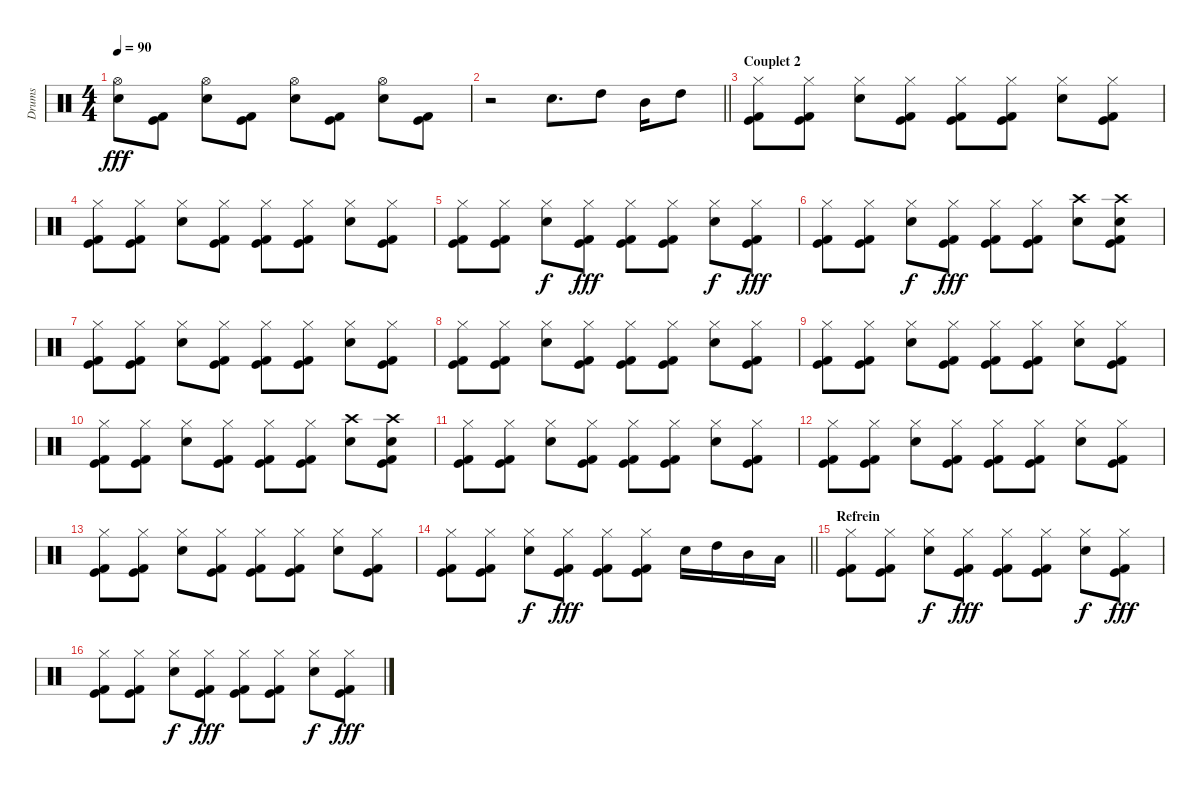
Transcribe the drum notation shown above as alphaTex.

\track ("Drums" "Drums") {instrument percussion}
\staff {score}
\articulation defaults
\ts (4 4)
\tempo 90
\clef neutral
\ks c
("Hi-Hat (open)" "Snare (hit) 2").8{dy fff} ("Kick (hit) 2" "Kick (hit)").8 ("Hi-Hat (open)" "Snare (hit) 2").8 ("Kick (hit) 2" "Kick (hit)").8 ("Hi-Hat (open)" "Snare (hit) 2").8 ("Kick (hit) 2" "Kick (hit)").8 ("Hi-Hat (open)" "Snare (hit) 2").8 ("Kick (hit) 2" "Kick (hit)").8 |
\barLineRight lightlight
r.2 "Electric Snare (hit)".8{d} "High Tom (hit)".8 "Mid Tom (hit)".16 "High Tom (hit)".8 |
\section ("" "Couplet 2")
("Hi-Hat (closed)" "Kick (hit) 2" "Kick (hit)").8 ("Hi-Hat (closed)" "Kick (hit) 2" "Kick (hit)").8 ("Hi-Hat (closed)" "Snare (hit) 2").8 ("Hi-Hat (closed)" "Kick (hit) 2" "Kick (hit)").8 ("Hi-Hat (closed)" "Kick (hit) 2" "Kick (hit)").8 ("Hi-Hat (closed)" "Kick (hit) 2" "Kick (hit)").8 ("Hi-Hat (closed)" "Snare (hit) 2").8 ("Hi-Hat (closed)" "Kick (hit) 2" "Kick (hit)").8 |
("Hi-Hat (closed)" "Kick (hit) 2" "Kick (hit)").8 ("Hi-Hat (closed)" "Kick (hit) 2" "Kick (hit)").8 ("Hi-Hat (closed)" "Snare (hit) 2").8 ("Hi-Hat (closed)" "Kick (hit) 2" "Kick (hit)").8 ("Hi-Hat (closed)" "Kick (hit) 2" "Kick (hit)").8 ("Hi-Hat (closed)" "Kick (hit) 2" "Kick (hit)").8 ("Hi-Hat (closed)" "Snare (hit) 2").8 ("Hi-Hat (closed)" "Kick (hit) 2" "Kick (hit)").8 |
("Hi-Hat (closed)" "Kick (hit) 2" "Kick (hit)").8 ("Hi-Hat (closed)" "Kick (hit) 2" "Kick (hit)").8 ("Hi-Hat (closed)" "Snare (hit) 2").8{dy f} ("Hi-Hat (closed)" "Kick (hit) 2" "Kick (hit)").8{dy fff} ("Hi-Hat (closed)" "Kick (hit) 2" "Kick (hit)").8 ("Hi-Hat (closed)" "Kick (hit) 2" "Kick (hit)").8 ("Hi-Hat (closed)" "Snare (hit) 2").8{dy f} ("Hi-Hat (closed)" "Kick (hit) 2" "Kick (hit)").8{dy fff} |
("Hi-Hat (closed)" "Kick (hit) 2" "Kick (hit)").8 ("Hi-Hat (closed)" "Kick (hit) 2" "Kick (hit)").8 ("Hi-Hat (closed)" "Snare (hit) 2").8{dy f} ("Hi-Hat (closed)" "Kick (hit) 2" "Kick (hit)").8{dy fff} ("Hi-Hat (closed)" "Kick (hit) 2" "Kick (hit)").8 ("Hi-Hat (closed)" "Kick (hit) 2" "Kick (hit)").8 ("Crash high (hit)" "Snare (hit) 2").8 ("Crash high (hit)" "Snare (hit) 2" "Kick (hit) 2" "Kick (hit)").8 |
("Hi-Hat (closed)" "Kick (hit) 2" "Kick (hit)").8 ("Hi-Hat (closed)" "Kick (hit) 2" "Kick (hit)").8 ("Hi-Hat (closed)" "Snare (hit) 2").8 ("Hi-Hat (closed)" "Kick (hit) 2" "Kick (hit)").8 ("Hi-Hat (closed)" "Kick (hit) 2" "Kick (hit)").8 ("Hi-Hat (closed)" "Kick (hit) 2" "Kick (hit)").8 ("Hi-Hat (closed)" "Snare (hit) 2").8 ("Hi-Hat (closed)" "Kick (hit) 2" "Kick (hit)").8 |
("Hi-Hat (closed)" "Kick (hit) 2" "Kick (hit)").8 ("Hi-Hat (closed)" "Kick (hit) 2" "Kick (hit)").8 ("Hi-Hat (closed)" "Snare (hit) 2").8 ("Hi-Hat (closed)" "Kick (hit) 2" "Kick (hit)").8 ("Hi-Hat (closed)" "Kick (hit) 2" "Kick (hit)").8 ("Hi-Hat (closed)" "Kick (hit) 2" "Kick (hit)").8 ("Hi-Hat (closed)" "Snare (hit) 2").8 ("Hi-Hat (closed)" "Kick (hit) 2" "Kick (hit)").8 |
("Hi-Hat (closed)" "Kick (hit) 2" "Kick (hit)").8 ("Hi-Hat (closed)" "Kick (hit) 2" "Kick (hit)").8 ("Hi-Hat (closed)" "Snare (hit) 2").8 ("Hi-Hat (closed)" "Kick (hit) 2" "Kick (hit)").8 ("Hi-Hat (closed)" "Kick (hit) 2" "Kick (hit)").8 ("Hi-Hat (closed)" "Kick (hit) 2" "Kick (hit)").8 ("Hi-Hat (closed)" "Snare (hit) 2").8 ("Hi-Hat (closed)" "Kick (hit) 2" "Kick (hit)").8 |
("Hi-Hat (closed)" "Kick (hit) 2" "Kick (hit)").8 ("Hi-Hat (closed)" "Kick (hit) 2" "Kick (hit)").8 ("Hi-Hat (closed)" "Snare (hit) 2").8 ("Hi-Hat (closed)" "Kick (hit) 2" "Kick (hit)").8 ("Hi-Hat (closed)" "Kick (hit) 2" "Kick (hit)").8 ("Hi-Hat (closed)" "Kick (hit) 2" "Kick (hit)").8 ("Crash high (hit)" "Snare (hit) 2").8 ("Crash high (hit)" "Snare (hit) 2" "Kick (hit) 2" "Kick (hit)").8 |
("Hi-Hat (closed)" "Kick (hit) 2" "Kick (hit)").8 ("Hi-Hat (closed)" "Kick (hit) 2" "Kick (hit)").8 ("Hi-Hat (closed)" "Snare (hit) 2").8 ("Hi-Hat (closed)" "Kick (hit) 2" "Kick (hit)").8 ("Hi-Hat (closed)" "Kick (hit) 2" "Kick (hit)").8 ("Hi-Hat (closed)" "Kick (hit) 2" "Kick (hit)").8 ("Hi-Hat (closed)" "Snare (hit) 2").8 ("Hi-Hat (closed)" "Kick (hit) 2" "Kick (hit)").8 |
("Hi-Hat (closed)" "Kick (hit) 2" "Kick (hit)").8 ("Hi-Hat (closed)" "Kick (hit) 2" "Kick (hit)").8 ("Hi-Hat (closed)" "Snare (hit) 2").8 ("Hi-Hat (closed)" "Kick (hit) 2" "Kick (hit)").8 ("Hi-Hat (closed)" "Kick (hit) 2" "Kick (hit)").8 ("Hi-Hat (closed)" "Kick (hit) 2" "Kick (hit)").8 ("Hi-Hat (closed)" "Snare (hit) 2").8 ("Hi-Hat (closed)" "Kick (hit) 2" "Kick (hit)").8 |
("Hi-Hat (closed)" "Kick (hit) 2" "Kick (hit)").8 ("Hi-Hat (closed)" "Kick (hit) 2" "Kick (hit)").8 ("Hi-Hat (closed)" "Snare (hit) 2").8 ("Hi-Hat (closed)" "Kick (hit) 2" "Kick (hit)").8 ("Hi-Hat (closed)" "Kick (hit) 2" "Kick (hit)").8 ("Hi-Hat (closed)" "Kick (hit) 2" "Kick (hit)").8 ("Hi-Hat (closed)" "Snare (hit) 2").8 ("Hi-Hat (closed)" "Kick (hit) 2" "Kick (hit)").8 |
\barLineRight lightlight
("Hi-Hat (closed)" "Kick (hit) 2" "Kick (hit)").8 ("Hi-Hat (closed)" "Kick (hit) 2" "Kick (hit)").8 ("Hi-Hat (closed)" "Snare (hit) 2").8{dy f} ("Hi-Hat (closed)" "Kick (hit) 2" "Kick (hit)").8{dy fff} ("Hi-Hat (closed)" "Kick (hit) 2" "Kick (hit)").8 ("Hi-Hat (closed)" "Kick (hit) 2" "Kick (hit)").8 "Snare (hit) 2".16 "High Tom (hit)".16 "Mid Tom (hit)".16 "Low Tom (hit)".16 |
\section ("" "Refrein")
("Hi-Hat (closed)" "Kick (hit) 2" "Kick (hit)").8 ("Hi-Hat (closed)" "Kick (hit) 2" "Kick (hit)").8 ("Hi-Hat (closed)" "Snare (hit) 2").8{dy f} ("Hi-Hat (closed)" "Kick (hit) 2" "Kick (hit)").8{dy fff} ("Hi-Hat (closed)" "Kick (hit) 2" "Kick (hit)").8 ("Hi-Hat (closed)" "Kick (hit) 2" "Kick (hit)").8 ("Hi-Hat (closed)" "Snare (hit) 2").8{dy f} ("Hi-Hat (closed)" "Kick (hit) 2" "Kick (hit)").8{dy fff} |
("Hi-Hat (closed)" "Kick (hit) 2" "Kick (hit)").8 ("Hi-Hat (closed)" "Kick (hit) 2" "Kick (hit)").8 ("Hi-Hat (closed)" "Snare (hit) 2").8{dy f} ("Hi-Hat (closed)" "Kick (hit) 2" "Kick (hit)").8{dy fff} ("Hi-Hat (closed)" "Kick (hit) 2" "Kick (hit)").8 ("Hi-Hat (closed)" "Kick (hit) 2" "Kick (hit)").8 ("Hi-Hat (closed)" "Snare (hit) 2").8{dy f} ("Hi-Hat (closed)" "Kick (hit) 2" "Kick (hit)").8{dy fff}
